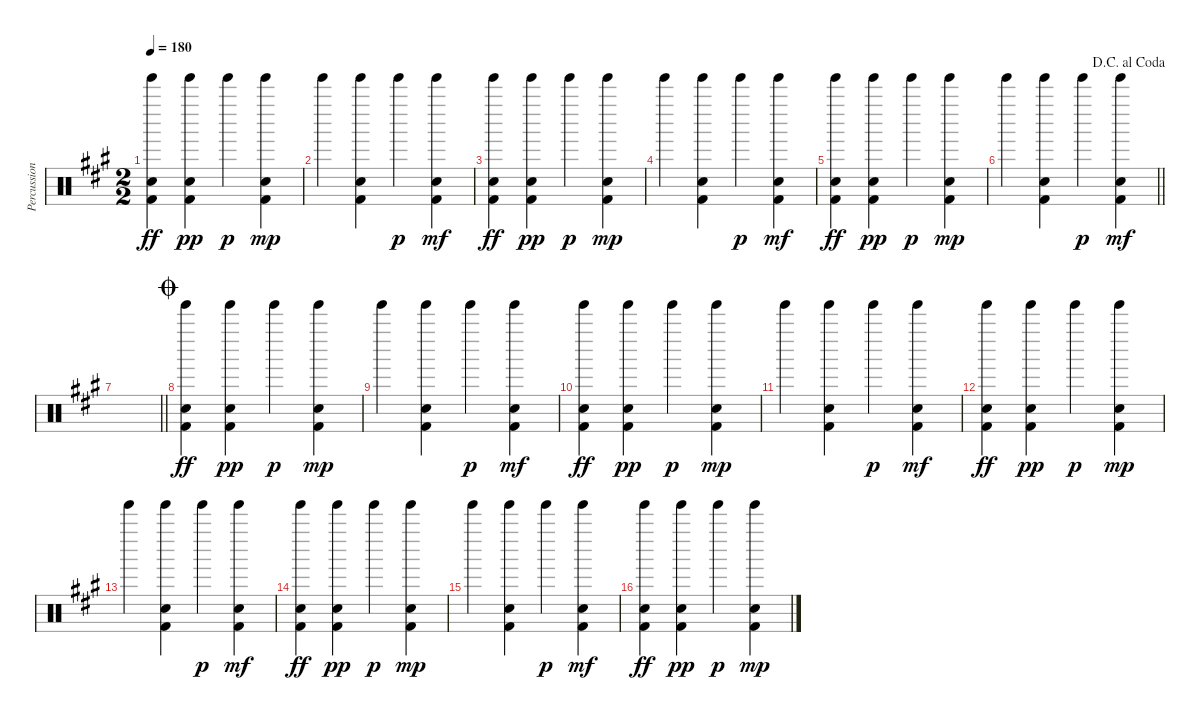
\track ("Percussion" "Percussion") {instrument percussion}
\staff {score}
\articulation defaults
\ts (2 2)
\tempo 180
\clef neutral
\ks a
("Tinkle Bell (hit)" "Electric Snare (hit)" "Kick (hit) 2").4{dy ff} ("Tinkle Bell (hit)" "Electric Snare (hit)" "Kick (hit) 2").4{dy pp} "Tinkle Bell (hit)".4{dy p} ("Tinkle Bell (hit)" "Electric Snare (hit)" "Kick (hit) 2").4{dy mp} |
"Tinkle Bell (hit)".4 ("Tinkle Bell (hit)" "Electric Snare (hit)" "Kick (hit) 2").4 "Tinkle Bell (hit)".4{dy p} ("Tinkle Bell (hit)" "Electric Snare (hit)" "Kick (hit) 2").4{dy mf} |
("Tinkle Bell (hit)" "Electric Snare (hit)" "Kick (hit) 2").4{dy ff} ("Tinkle Bell (hit)" "Electric Snare (hit)" "Kick (hit) 2").4{dy pp} "Tinkle Bell (hit)".4{dy p} ("Tinkle Bell (hit)" "Electric Snare (hit)" "Kick (hit) 2").4{dy mp} |
"Tinkle Bell (hit)".4 ("Tinkle Bell (hit)" "Electric Snare (hit)" "Kick (hit) 2").4 "Tinkle Bell (hit)".4{dy p} ("Tinkle Bell (hit)" "Electric Snare (hit)" "Kick (hit) 2").4{dy mf} |
("Tinkle Bell (hit)" "Electric Snare (hit)" "Kick (hit) 2").4{dy ff} ("Tinkle Bell (hit)" "Electric Snare (hit)" "Kick (hit) 2").4{dy pp} "Tinkle Bell (hit)".4{dy p} ("Tinkle Bell (hit)" "Electric Snare (hit)" "Kick (hit) 2").4{dy mp} |
\jump dacapoalcoda
\barLineRight lightlight "Tinkle Bell (hit)".4
("Tinkle Bell (hit)" "Electric Snare (hit)" "Kick (hit) 2").4 "Tinkle Bell (hit)".4{dy p} ("Tinkle Bell (hit)" "Electric Snare (hit)" "Kick (hit) 2").4{dy mf} |
\barLineRight lightlight
|
\jump coda
("Tinkle Bell (hit)" "Electric Snare (hit)" "Kick (hit) 2").4{dy ff} ("Tinkle Bell (hit)" "Electric Snare (hit)" "Kick (hit) 2").4{dy pp} "Tinkle Bell (hit)".4{dy p} ("Tinkle Bell (hit)" "Electric Snare (hit)" "Kick (hit) 2").4{dy mp} |
"Tinkle Bell (hit)".4 ("Tinkle Bell (hit)" "Electric Snare (hit)" "Kick (hit) 2").4 "Tinkle Bell (hit)".4{dy p} ("Tinkle Bell (hit)" "Electric Snare (hit)" "Kick (hit) 2").4{dy mf} |
("Tinkle Bell (hit)" "Electric Snare (hit)" "Kick (hit) 2").4{dy ff} ("Tinkle Bell (hit)" "Electric Snare (hit)" "Kick (hit) 2").4{dy pp} "Tinkle Bell (hit)".4{dy p} ("Tinkle Bell (hit)" "Electric Snare (hit)" "Kick (hit) 2").4{dy mp} |
"Tinkle Bell (hit)".4 ("Tinkle Bell (hit)" "Electric Snare (hit)" "Kick (hit) 2").4 "Tinkle Bell (hit)".4{dy p} ("Tinkle Bell (hit)" "Electric Snare (hit)" "Kick (hit) 2").4{dy mf} |
("Tinkle Bell (hit)" "Electric Snare (hit)" "Kick (hit) 2").4{dy ff} ("Tinkle Bell (hit)" "Electric Snare (hit)" "Kick (hit) 2").4{dy pp} "Tinkle Bell (hit)".4{dy p} ("Tinkle Bell (hit)" "Electric Snare (hit)" "Kick (hit) 2").4{dy mp} |
"Tinkle Bell (hit)".4 ("Tinkle Bell (hit)" "Electric Snare (hit)" "Kick (hit) 2").4 "Tinkle Bell (hit)".4{dy p} ("Tinkle Bell (hit)" "Electric Snare (hit)" "Kick (hit) 2").4{dy mf} |
("Tinkle Bell (hit)" "Electric Snare (hit)" "Kick (hit) 2").4{dy ff} ("Tinkle Bell (hit)" "Electric Snare (hit)" "Kick (hit) 2").4{dy pp} "Tinkle Bell (hit)".4{dy p} ("Tinkle Bell (hit)" "Electric Snare (hit)" "Kick (hit) 2").4{dy mp} |
"Tinkle Bell (hit)".4 ("Tinkle Bell (hit)" "Electric Snare (hit)" "Kick (hit) 2").4 "Tinkle Bell (hit)".4{dy p} ("Tinkle Bell (hit)" "Electric Snare (hit)" "Kick (hit) 2").4{dy mf} |
("Tinkle Bell (hit)" "Electric Snare (hit)" "Kick (hit) 2").4{dy ff} ("Tinkle Bell (hit)" "Electric Snare (hit)" "Kick (hit) 2").4{dy pp} "Tinkle Bell (hit)".4{dy p} ("Tinkle Bell (hit)" "Electric Snare (hit)" "Kick (hit) 2").4{dy mp}
